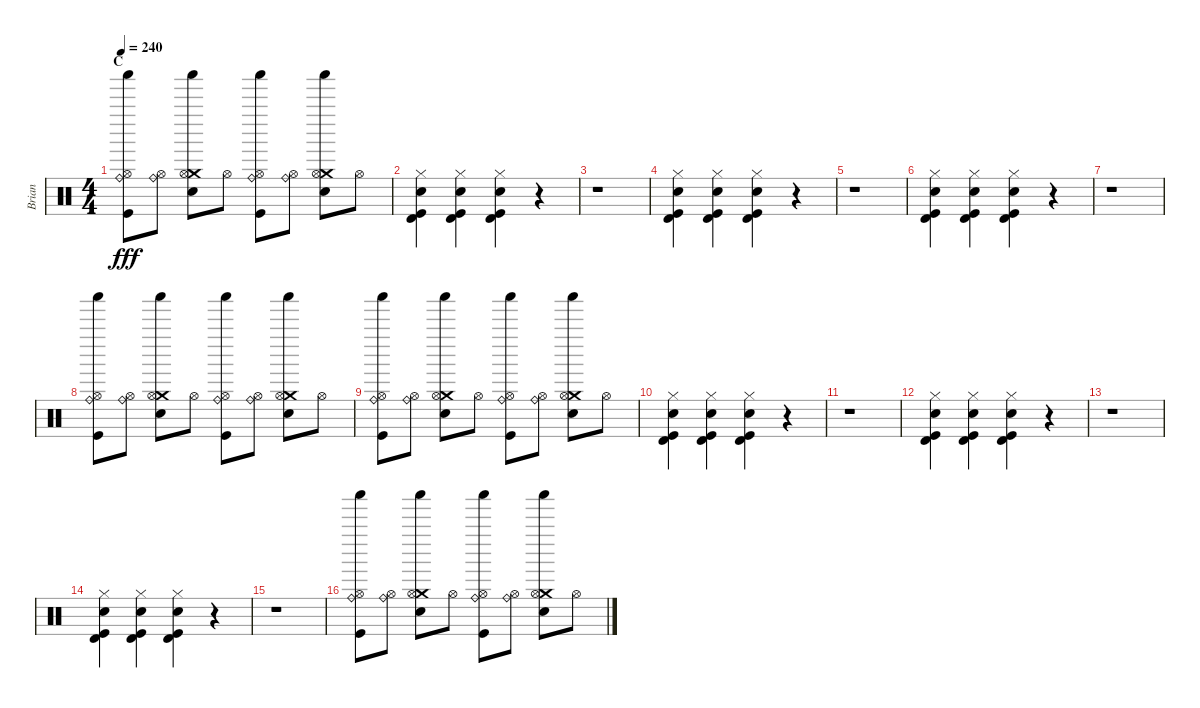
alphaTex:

\track ("Brian" "Brian") {instrument percussion}
\staff {score}
\articulation defaults
\ts (4 4)
\section ("" "C")
\tempo 240
\clef neutral
\ks c
("Shaker (hit)" "Ride (bell)" "Hi-Hat (open)" "Kick (hit)").8{dy fff} ("Ride (bell)" "Hi-Hat (open)").8 ("Shaker (hit)" "Crash medium (hit)" "Hi-Hat (open)" "Snare (hit) 2").8 "Hi-Hat (open)".8 ("Shaker (hit)" "Ride (bell)" "Hi-Hat (open)" "Kick (hit)").8 ("Ride (bell)" "Hi-Hat (open)").8 ("Shaker (hit)" "Crash medium (hit)" "Hi-Hat (open)" "Snare (hit) 2").8 "Hi-Hat (open)".8 |
("Timbale high (hit)" "Hi-Hat (closed)" "Snare (hit) 2" "Kick (hit)").4 ("Timbale high (hit)" "Hi-Hat (closed)" "Snare (hit) 2" "Kick (hit)").4 ("Timbale high (hit)" "Hi-Hat (closed)" "Snare (hit) 2" "Kick (hit)").4 r.4 |
r.1 |
("Timbale high (hit)" "Hi-Hat (closed)" "Snare (hit) 2" "Kick (hit)").4 ("Timbale high (hit)" "Hi-Hat (closed)" "Snare (hit) 2" "Kick (hit)").4 ("Timbale high (hit)" "Hi-Hat (closed)" "Snare (hit) 2" "Kick (hit)").4 r.4 |
r.1 |
("Timbale high (hit)" "Hi-Hat (closed)" "Snare (hit) 2" "Kick (hit)").4 ("Timbale high (hit)" "Hi-Hat (closed)" "Snare (hit) 2" "Kick (hit)").4 ("Timbale high (hit)" "Hi-Hat (closed)" "Snare (hit) 2" "Kick (hit)").4 r.4 |
r.1 |
("Shaker (hit)" "Ride (bell)" "Hi-Hat (open)" "Kick (hit)").8 ("Ride (bell)" "Hi-Hat (open)").8 ("Shaker (hit)" "Crash medium (hit)" "Hi-Hat (open)" "Snare (hit) 2").8 "Hi-Hat (open)".8 ("Shaker (hit)" "Ride (bell)" "Hi-Hat (open)" "Kick (hit)").8 ("Ride (bell)" "Hi-Hat (open)").8 ("Shaker (hit)" "Crash medium (hit)" "Hi-Hat (open)" "Snare (hit) 2").8 "Hi-Hat (open)".8 |
("Shaker (hit)" "Ride (bell)" "Hi-Hat (open)" "Kick (hit)").8 ("Ride (bell)" "Hi-Hat (open)").8 ("Shaker (hit)" "Crash medium (hit)" "Hi-Hat (open)" "Snare (hit) 2").8 "Hi-Hat (open)".8 ("Shaker (hit)" "Ride (bell)" "Hi-Hat (open)" "Kick (hit)").8 ("Ride (bell)" "Hi-Hat (open)").8 ("Shaker (hit)" "Crash medium (hit)" "Hi-Hat (open)" "Snare (hit) 2").8 "Hi-Hat (open)".8 |
("Timbale high (hit)" "Hi-Hat (closed)" "Snare (hit) 2" "Kick (hit)").4 ("Timbale high (hit)" "Hi-Hat (closed)" "Snare (hit) 2" "Kick (hit)").4 ("Timbale high (hit)" "Hi-Hat (closed)" "Snare (hit) 2" "Kick (hit)").4 r.4 |
r.1 |
("Timbale high (hit)" "Hi-Hat (closed)" "Snare (hit) 2" "Kick (hit)").4 ("Timbale high (hit)" "Hi-Hat (closed)" "Snare (hit) 2" "Kick (hit)").4 ("Timbale high (hit)" "Hi-Hat (closed)" "Snare (hit) 2" "Kick (hit)").4 r.4 |
r.1 |
("Timbale high (hit)" "Hi-Hat (closed)" "Snare (hit) 2" "Kick (hit)").4 ("Timbale high (hit)" "Hi-Hat (closed)" "Snare (hit) 2" "Kick (hit)").4 ("Timbale high (hit)" "Hi-Hat (closed)" "Snare (hit) 2" "Kick (hit)").4 r.4 |
r.1 |
("Shaker (hit)" "Ride (bell)" "Hi-Hat (open)" "Kick (hit)").8 ("Ride (bell)" "Hi-Hat (open)").8 ("Shaker (hit)" "Crash medium (hit)" "Hi-Hat (open)" "Snare (hit) 2").8 "Hi-Hat (open)".8 ("Shaker (hit)" "Ride (bell)" "Hi-Hat (open)" "Kick (hit)").8 ("Ride (bell)" "Hi-Hat (open)").8 ("Shaker (hit)" "Crash medium (hit)" "Hi-Hat (open)" "Snare (hit) 2").8 "Hi-Hat (open)".8
